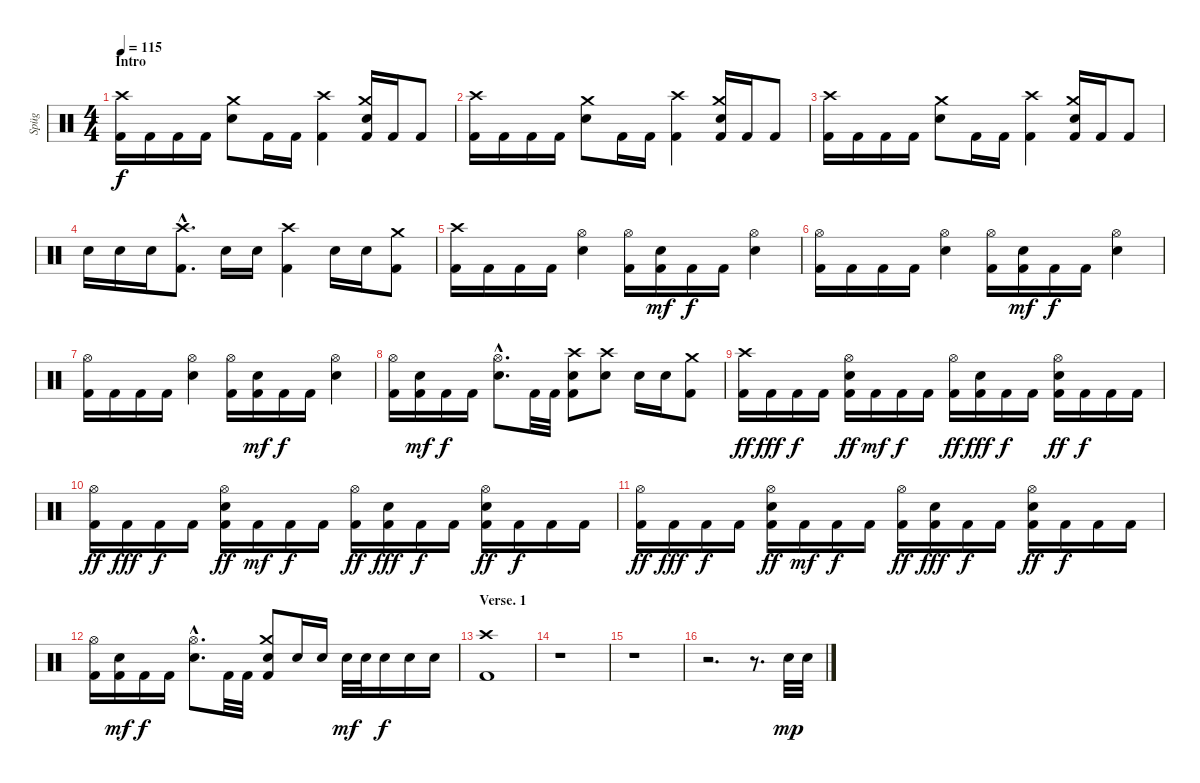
\track ("Spüg" "Spüg") {instrument percussion}
\staff {score}
\articulation defaults
\ts (4 4)
\section ("" "Intro")
\tempo 115
\clef neutral
\ks c
("Crash high (hit)" "Kick (hit) 2").16{dy f} "Kick (hit) 2".16 "Kick (hit) 2".16 "Kick (hit) 2".16 ("Crash medium (hit)" "Electric Snare (hit)").8 "Kick (hit) 2".16 "Kick (hit) 2".16 ("Crash high (hit)" "Kick (hit) 2").4 ("Crash medium (hit)" "Electric Snare (hit)" "Kick (hit) 2").16 "Kick (hit) 2".16 "Kick (hit) 2".8 |
("Crash high (hit)" "Kick (hit) 2").16 "Kick (hit) 2".16 "Kick (hit) 2".16 "Kick (hit) 2".16 ("Crash medium (hit)" "Electric Snare (hit)").8 "Kick (hit) 2".16 "Kick (hit) 2".16 ("Crash high (hit)" "Kick (hit) 2").4 ("Crash medium (hit)" "Electric Snare (hit)" "Kick (hit) 2").16 "Kick (hit) 2".16 "Kick (hit) 2".8 |
("Crash high (hit)" "Kick (hit) 2").16 "Kick (hit) 2".16 "Kick (hit) 2".16 "Kick (hit) 2".16 ("Crash medium (hit)" "Electric Snare (hit)").8 "Kick (hit) 2".16 "Kick (hit) 2".16 ("Crash high (hit)" "Kick (hit) 2").4 ("Crash medium (hit)" "Electric Snare (hit)" "Kick (hit) 2").16 "Kick (hit) 2".16 "Kick (hit) 2".8 |
"Electric Snare (hit)".16 "Electric Snare (hit)".16 "Electric Snare (hit)".16 ("Crash high (hit)"{hac} "Kick (hit) 2"{hac}).8{d} "Electric Snare (hit)".16 "Electric Snare (hit)".16 ("Crash high (hit)" "Kick (hit) 2").4 "Electric Snare (hit)".16 "Electric Snare (hit)".16 ("Crash medium (hit)" "Kick (hit) 2").8 |
("Crash high (hit)" "Kick (hit) 2").16 "Kick (hit) 2".16 "Kick (hit) 2".16 "Kick (hit) 2".16 ("Hi-Hat (open)" "Electric Snare (hit)").4 ("Hi-Hat (open)" "Kick (hit) 2").16 ("Electric Snare (hit)" "Kick (hit) 2").16{dy mf} "Kick (hit) 2".16{dy f} "Kick (hit) 2".16 ("Hi-Hat (open)" "Electric Snare (hit)").4 |
("Hi-Hat (open)" "Kick (hit) 2").16 "Kick (hit) 2".16 "Kick (hit) 2".16 "Kick (hit) 2".16 ("Hi-Hat (open)" "Electric Snare (hit)").4 ("Hi-Hat (open)" "Kick (hit) 2").16 ("Electric Snare (hit)" "Kick (hit) 2").16{dy mf} "Kick (hit) 2".16{dy f} "Kick (hit) 2".16 ("Hi-Hat (open)" "Electric Snare (hit)").4 |
("Hi-Hat (open)" "Kick (hit) 2").16 "Kick (hit) 2".16 "Kick (hit) 2".16 "Kick (hit) 2".16 ("Hi-Hat (open)" "Electric Snare (hit)").4 ("Hi-Hat (open)" "Kick (hit) 2").16 ("Electric Snare (hit)" "Kick (hit) 2").16{dy mf} "Kick (hit) 2".16{dy f} "Kick (hit) 2".16 ("Hi-Hat (open)" "Electric Snare (hit)").4 |
("Hi-Hat (open)" "Kick (hit) 2").16 ("Electric Snare (hit)" "Kick (hit) 2").16{dy mf} "Kick (hit) 2".16{dy f} "Kick (hit) 2".16 ("Hi-Hat (open)"{hac} "Electric Snare (hit)"{hac}).8{d} "Kick (hit) 2".32 "Kick (hit) 2".32 ("Crash high (hit)" "Electric Snare (hit)" "Kick (hit) 2").8 ("Crash high (hit)" "Electric Snare (hit)").8 "Electric Snare (hit)".16 "Electric Snare (hit)".16 ("Crash medium (hit)" "Kick (hit) 2").8 |
("Crash high (hit)" "Kick (hit) 2").16{dy ff} "Kick (hit) 2".16{dy fff} "Kick (hit) 2".16{dy f} "Kick (hit) 2".16 ("Hi-Hat (open)" "Electric Snare (hit)" "Kick (hit) 2").16{dy ff} "Kick (hit) 2".16{dy mf} "Kick (hit) 2".16{dy f} "Kick (hit) 2".16 ("Hi-Hat (open)" "Kick (hit) 2").16{dy ff} ("Electric Snare (hit)" "Kick (hit) 2").16{dy fff} "Kick (hit) 2".16{dy f} "Kick (hit) 2".16 ("Hi-Hat (open)" "Electric Snare (hit)" "Kick (hit) 2").16{dy ff} "Kick (hit) 2".16{dy f} "Kick (hit) 2".16 "Kick (hit) 2".16 |
("Hi-Hat (open)" "Kick (hit) 2").16{dy ff} "Kick (hit) 2".16{dy fff} "Kick (hit) 2".16{dy f} "Kick (hit) 2".16 ("Hi-Hat (open)" "Electric Snare (hit)" "Kick (hit) 2").16{dy ff} "Kick (hit) 2".16{dy mf} "Kick (hit) 2".16{dy f} "Kick (hit) 2".16 ("Hi-Hat (open)" "Kick (hit) 2").16{dy ff} ("Electric Snare (hit)" "Kick (hit) 2").16{dy fff} "Kick (hit) 2".16{dy f} "Kick (hit) 2".16 ("Hi-Hat (open)" "Electric Snare (hit)" "Kick (hit) 2").16{dy ff} "Kick (hit) 2".16{dy f} "Kick (hit) 2".16 "Kick (hit) 2".16 |
("Hi-Hat (open)" "Kick (hit) 2").16{dy ff} "Kick (hit) 2".16{dy fff} "Kick (hit) 2".16{dy f} "Kick (hit) 2".16 ("Hi-Hat (open)" "Electric Snare (hit)" "Kick (hit) 2").16{dy ff} "Kick (hit) 2".16{dy mf} "Kick (hit) 2".16{dy f} "Kick (hit) 2".16 ("Hi-Hat (open)" "Kick (hit) 2").16{dy ff} ("Electric Snare (hit)" "Kick (hit) 2").16{dy fff} "Kick (hit) 2".16{dy f} "Kick (hit) 2".16 ("Hi-Hat (open)" "Electric Snare (hit)" "Kick (hit) 2").16{dy ff} "Kick (hit) 2".16{dy f} "Kick (hit) 2".16 "Kick (hit) 2".16 |
("Hi-Hat (open)" "Kick (hit) 2").16 ("Electric Snare (hit)" "Kick (hit) 2").16{dy mf} "Kick (hit) 2".16{dy f} "Kick (hit) 2".16 ("Hi-Hat (open)"{hac} "Electric Snare (hit)"{hac}).8{d} "Kick (hit) 2".32 "Kick (hit) 2".32 ("Crash medium (hit)" "Electric Snare (hit)" "Kick (hit) 2").8 "Electric Snare (hit)".16 "Electric Snare (hit)".16 "Electric Snare (hit)".32{dy mf} "Electric Snare (hit)".32 "Electric Snare (hit)".16{dy f} "Electric Snare (hit)".16 "Electric Snare (hit)".16 |
\section ("" "Verse. 1")
("Crash high (hit)" "Kick (hit) 2").1 |
r.1 |
r.1 |
r.2{d} r.8{d} "Electric Snare (hit)".32{dy mp} "Electric Snare (hit)".32
